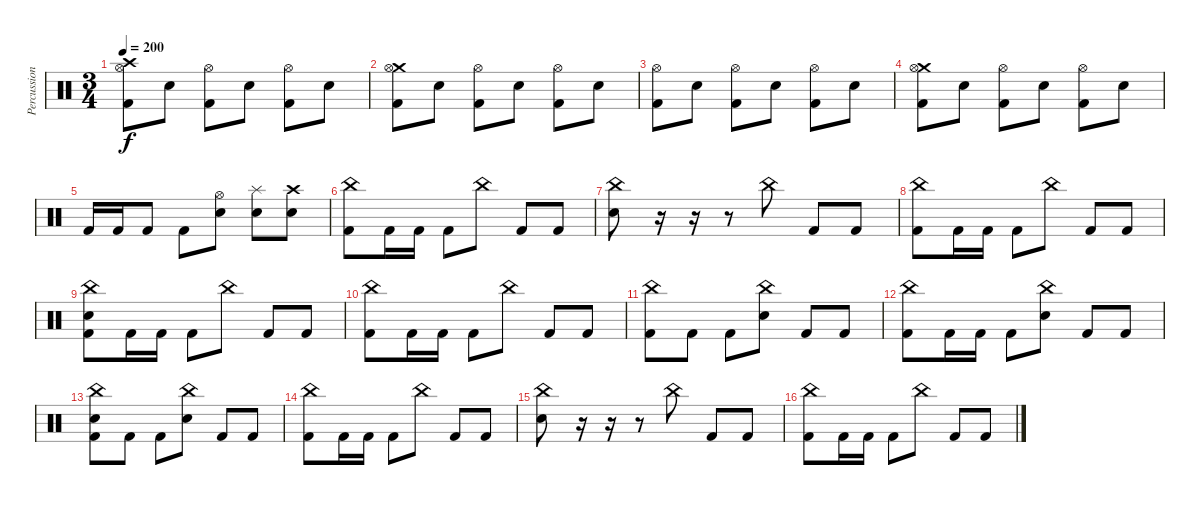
\track ("Percussion" "Percussion") {instrument percussion}
\staff {score}
\articulation defaults
\ts (3 4)
\tempo 200
\clef neutral
\ks c
("Crash high (hit)" "Hi-Hat (open)" "Kick (hit) 2").8{dy f} "Snare (hit) 2".8 ("Hi-Hat (open)" "Kick (hit) 2").8 "Snare (hit) 2".8 ("Hi-Hat (open)" "Kick (hit) 2").8 "Snare (hit) 2".8 |
("Crash medium (hit)" "Hi-Hat (open)" "Kick (hit) 2").8 "Snare (hit) 2".8 ("Hi-Hat (open)" "Kick (hit) 2").8 "Snare (hit) 2".8 ("Hi-Hat (open)" "Kick (hit) 2").8 "Snare (hit) 2".8 |
("Hi-Hat (open)" "Kick (hit) 2").8 "Snare (hit) 2".8 ("Hi-Hat (open)" "Kick (hit) 2").8 "Snare (hit) 2".8 ("Hi-Hat (open)" "Kick (hit) 2").8 "Snare (hit) 2".8 |
("Crash medium (hit)" "Hi-Hat (open)" "Kick (hit) 2").8 "Snare (hit) 2".8 ("Hi-Hat (open)" "Kick (hit) 2").8 "Snare (hit) 2".8 ("Hi-Hat (open)" "Kick (hit) 2").8 "Snare (hit) 2".8 |
"Kick (hit) 2".16 "Kick (hit) 2".16 "Kick (hit) 2".8 "Kick (hit) 2".8 ("Hi-Hat (open)" "Snare (hit) 2").8 ("Splash (hit)" "Snare (hit) 2").8 ("Crash high (hit)" "Snare (hit) 2").8 |
("China (hit)" "Kick (hit) 2").8 "Kick (hit) 2".16 "Kick (hit) 2".16 "Kick (hit) 2".8 "China (hit)".8 "Kick (hit) 2".8 "Kick (hit) 2".8 |
("China (hit)" "Snare (hit) 2").8 r.16 r.16 r.8 "China (hit)".8 "Kick (hit) 2".8 "Kick (hit) 2".8 |
("China (hit)" "Kick (hit) 2").8 "Kick (hit) 2".16 "Kick (hit) 2".16 "Kick (hit) 2".8 "China (hit)".8 "Kick (hit) 2".8 "Kick (hit) 2".8 |
("China (hit)" "Snare (hit) 2" "Kick (hit) 2").8 "Kick (hit) 2".16 "Kick (hit) 2".16 "Kick (hit) 2".8 "China (hit)".8 "Kick (hit) 2".8 "Kick (hit) 2".8 |
("China (hit)" "Kick (hit) 2").8 "Kick (hit) 2".16 "Kick (hit) 2".16 "Kick (hit) 2".8 "China (hit)".8 "Kick (hit) 2".8 "Kick (hit) 2".8 |
("China (hit)" "Kick (hit) 2").8 "Kick (hit) 2".8 "Kick (hit) 2".8 ("China (hit)" "Snare (hit) 2").8 "Kick (hit) 2".8 "Kick (hit) 2".8 |
("China (hit)" "Kick (hit) 2").8 "Kick (hit) 2".16 "Kick (hit) 2".16 "Kick (hit) 2".8 ("China (hit)" "Snare (hit) 2").8 "Kick (hit) 2".8 "Kick (hit) 2".8 |
("China (hit)" "Snare (hit) 2" "Kick (hit) 2").8 "Kick (hit) 2".8 "Kick (hit) 2".8 ("China (hit)" "Snare (hit) 2").8 "Kick (hit) 2".8 "Kick (hit) 2".8 |
("China (hit)" "Kick (hit) 2").8 "Kick (hit) 2".16 "Kick (hit) 2".16 "Kick (hit) 2".8 "China (hit)".8 "Kick (hit) 2".8 "Kick (hit) 2".8 |
("China (hit)" "Snare (hit) 2").8 r.16 r.16 r.8 "China (hit)".8 "Kick (hit) 2".8 "Kick (hit) 2".8 |
("China (hit)" "Kick (hit) 2").8 "Kick (hit) 2".16 "Kick (hit) 2".16 "Kick (hit) 2".8 "China (hit)".8 "Kick (hit) 2".8 "Kick (hit) 2".8
